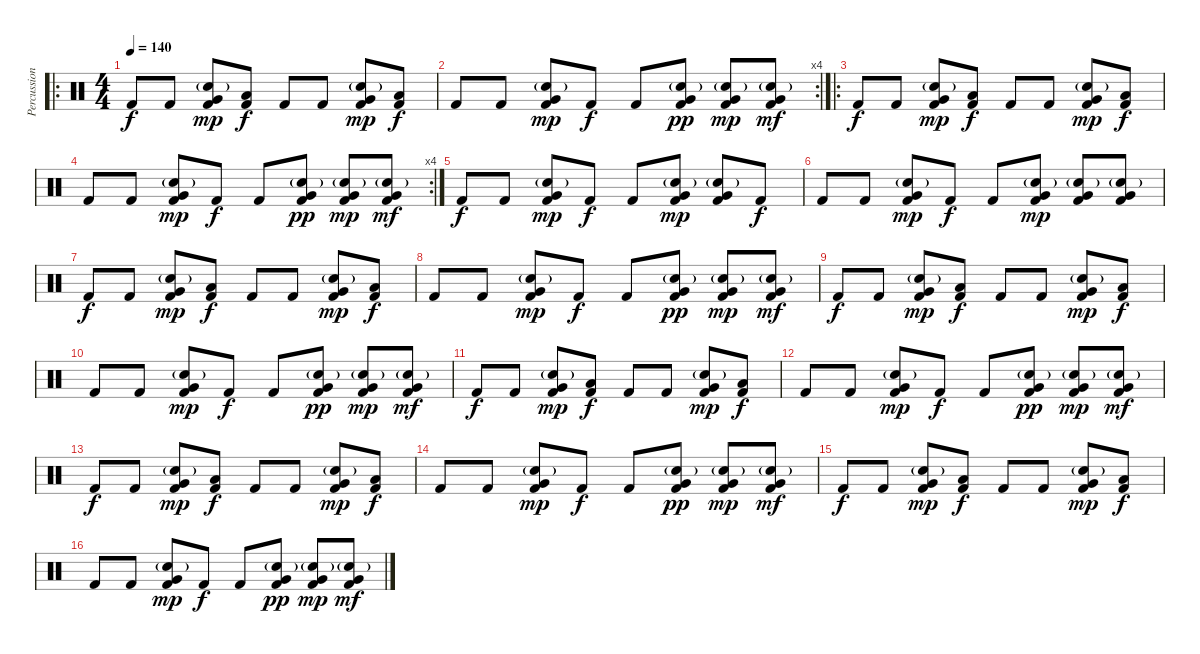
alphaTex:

\track ("Percussion" "Percussion") {instrument percussion}
\staff {score}
\articulation defaults
\ro
\ts (4 4)
\tempo 140
\clef neutral
\ks c "Kick (hit) 2".8{dy f} "Kick (hit) 2".8
("Very Low Tom (hit)" "Electric Snare (hit)"{g} "Kick (hit) 2").8{dy mp} ("Low Floor Tom (hit)" "Kick (hit) 2").8{dy f} "Kick (hit) 2".8 "Kick (hit) 2".8 ("Very Low Tom (hit)" "Electric Snare (hit)"{g} "Kick (hit) 2").8{dy mp} ("Low Floor Tom (hit)" "Kick (hit) 2").8{dy f} |
\rc 4 "Kick (hit) 2".8 "Kick (hit) 2".8
("Very Low Tom (hit)" "Electric Snare (hit)"{g} "Kick (hit) 2").8{dy mp} "Kick (hit) 2".8{dy f} "Kick (hit) 2".8 ("Very Low Tom (hit)" "Electric Snare (hit)"{g} "Kick (hit) 2").8{dy pp} ("Very Low Tom (hit)" "Electric Snare (hit)"{g} "Kick (hit) 2").8{dy mp} ("Very Low Tom (hit)" "Electric Snare (hit)"{g} "Kick (hit) 2").8{dy mf} |
\ro "Kick (hit) 2".8{dy f} "Kick (hit) 2".8
("Very Low Tom (hit)" "Electric Snare (hit)"{g} "Kick (hit) 2").8{dy mp} ("Low Floor Tom (hit)" "Kick (hit) 2").8{dy f} "Kick (hit) 2".8 "Kick (hit) 2".8 ("Very Low Tom (hit)" "Electric Snare (hit)"{g} "Kick (hit) 2").8{dy mp} ("Low Floor Tom (hit)" "Kick (hit) 2").8{dy f} |
\rc 4 "Kick (hit) 2".8 "Kick (hit) 2".8
("Very Low Tom (hit)" "Electric Snare (hit)"{g} "Kick (hit) 2").8{dy mp} "Kick (hit) 2".8{dy f} "Kick (hit) 2".8 ("Very Low Tom (hit)" "Electric Snare (hit)"{g} "Kick (hit) 2").8{dy pp} ("Very Low Tom (hit)" "Electric Snare (hit)"{g} "Kick (hit) 2").8{dy mp} ("Very Low Tom (hit)" "Electric Snare (hit)"{g} "Kick (hit) 2").8{dy mf} |
"Kick (hit) 2".8{dy f} "Kick (hit) 2".8 ("Very Low Tom (hit)" "Electric Snare (hit)"{g} "Kick (hit) 2").8{dy mp} "Kick (hit) 2".8{dy f} "Kick (hit) 2".8 ("Very Low Tom (hit)" "Electric Snare (hit)"{g} "Kick (hit) 2").8{dy mp} ("Very Low Tom (hit)" "Electric Snare (hit)"{g} "Kick (hit) 2").8 "Kick (hit) 2".8{dy f} |
"Kick (hit) 2".8 "Kick (hit) 2".8 ("Very Low Tom (hit)" "Electric Snare (hit)"{g} "Kick (hit) 2").8{dy mp} "Kick (hit) 2".8{dy f} "Kick (hit) 2".8 ("Very Low Tom (hit)" "Electric Snare (hit)"{g} "Kick (hit) 2").8{dy mp} ("Very Low Tom (hit)" "Electric Snare (hit)"{g} "Kick (hit) 2").8 ("Very Low Tom (hit)" "Electric Snare (hit)"{g} "Kick (hit) 2").8 |
"Kick (hit) 2".8{dy f} "Kick (hit) 2".8 ("Very Low Tom (hit)" "Electric Snare (hit)"{g} "Kick (hit) 2").8{dy mp} ("Low Floor Tom (hit)" "Kick (hit) 2").8{dy f} "Kick (hit) 2".8 "Kick (hit) 2".8 ("Very Low Tom (hit)" "Electric Snare (hit)"{g} "Kick (hit) 2").8{dy mp} ("Low Floor Tom (hit)" "Kick (hit) 2").8{dy f} |
"Kick (hit) 2".8 "Kick (hit) 2".8 ("Very Low Tom (hit)" "Electric Snare (hit)"{g} "Kick (hit) 2").8{dy mp} "Kick (hit) 2".8{dy f} "Kick (hit) 2".8 ("Very Low Tom (hit)" "Electric Snare (hit)"{g} "Kick (hit) 2").8{dy pp} ("Very Low Tom (hit)" "Electric Snare (hit)"{g} "Kick (hit) 2").8{dy mp} ("Very Low Tom (hit)" "Electric Snare (hit)"{g} "Kick (hit) 2").8{dy mf} |
"Kick (hit) 2".8{dy f} "Kick (hit) 2".8 ("Very Low Tom (hit)" "Electric Snare (hit)"{g} "Kick (hit) 2").8{dy mp} ("Low Floor Tom (hit)" "Kick (hit) 2").8{dy f} "Kick (hit) 2".8 "Kick (hit) 2".8 ("Very Low Tom (hit)" "Electric Snare (hit)"{g} "Kick (hit) 2").8{dy mp} ("Low Floor Tom (hit)" "Kick (hit) 2").8{dy f} |
"Kick (hit) 2".8 "Kick (hit) 2".8 ("Very Low Tom (hit)" "Electric Snare (hit)"{g} "Kick (hit) 2").8{dy mp} "Kick (hit) 2".8{dy f} "Kick (hit) 2".8 ("Very Low Tom (hit)" "Electric Snare (hit)"{g} "Kick (hit) 2").8{dy pp} ("Very Low Tom (hit)" "Electric Snare (hit)"{g} "Kick (hit) 2").8{dy mp} ("Very Low Tom (hit)" "Electric Snare (hit)"{g} "Kick (hit) 2").8{dy mf} |
"Kick (hit) 2".8{dy f} "Kick (hit) 2".8 ("Very Low Tom (hit)" "Electric Snare (hit)"{g} "Kick (hit) 2").8{dy mp} ("Low Floor Tom (hit)" "Kick (hit) 2").8{dy f} "Kick (hit) 2".8 "Kick (hit) 2".8 ("Very Low Tom (hit)" "Electric Snare (hit)"{g} "Kick (hit) 2").8{dy mp} ("Low Floor Tom (hit)" "Kick (hit) 2").8{dy f} |
"Kick (hit) 2".8 "Kick (hit) 2".8 ("Very Low Tom (hit)" "Electric Snare (hit)"{g} "Kick (hit) 2").8{dy mp} "Kick (hit) 2".8{dy f} "Kick (hit) 2".8 ("Very Low Tom (hit)" "Electric Snare (hit)"{g} "Kick (hit) 2").8{dy pp} ("Very Low Tom (hit)" "Electric Snare (hit)"{g} "Kick (hit) 2").8{dy mp} ("Very Low Tom (hit)" "Electric Snare (hit)"{g} "Kick (hit) 2").8{dy mf} |
"Kick (hit) 2".8{dy f} "Kick (hit) 2".8 ("Very Low Tom (hit)" "Electric Snare (hit)"{g} "Kick (hit) 2").8{dy mp} ("Low Floor Tom (hit)" "Kick (hit) 2").8{dy f} "Kick (hit) 2".8 "Kick (hit) 2".8 ("Very Low Tom (hit)" "Electric Snare (hit)"{g} "Kick (hit) 2").8{dy mp} ("Low Floor Tom (hit)" "Kick (hit) 2").8{dy f} |
"Kick (hit) 2".8 "Kick (hit) 2".8 ("Very Low Tom (hit)" "Electric Snare (hit)"{g} "Kick (hit) 2").8{dy mp} "Kick (hit) 2".8{dy f} "Kick (hit) 2".8 ("Very Low Tom (hit)" "Electric Snare (hit)"{g} "Kick (hit) 2").8{dy pp} ("Very Low Tom (hit)" "Electric Snare (hit)"{g} "Kick (hit) 2").8{dy mp} ("Very Low Tom (hit)" "Electric Snare (hit)"{g} "Kick (hit) 2").8{dy mf} |
"Kick (hit) 2".8{dy f} "Kick (hit) 2".8 ("Very Low Tom (hit)" "Electric Snare (hit)"{g} "Kick (hit) 2").8{dy mp} ("Low Floor Tom (hit)" "Kick (hit) 2").8{dy f} "Kick (hit) 2".8 "Kick (hit) 2".8 ("Very Low Tom (hit)" "Electric Snare (hit)"{g} "Kick (hit) 2").8{dy mp} ("Low Floor Tom (hit)" "Kick (hit) 2").8{dy f} |
"Kick (hit) 2".8 "Kick (hit) 2".8 ("Very Low Tom (hit)" "Electric Snare (hit)"{g} "Kick (hit) 2").8{dy mp} "Kick (hit) 2".8{dy f} "Kick (hit) 2".8 ("Very Low Tom (hit)" "Electric Snare (hit)"{g} "Kick (hit) 2").8{dy pp} ("Very Low Tom (hit)" "Electric Snare (hit)"{g} "Kick (hit) 2").8{dy mp} ("Very Low Tom (hit)" "Electric Snare (hit)"{g} "Kick (hit) 2").8{dy mf}
